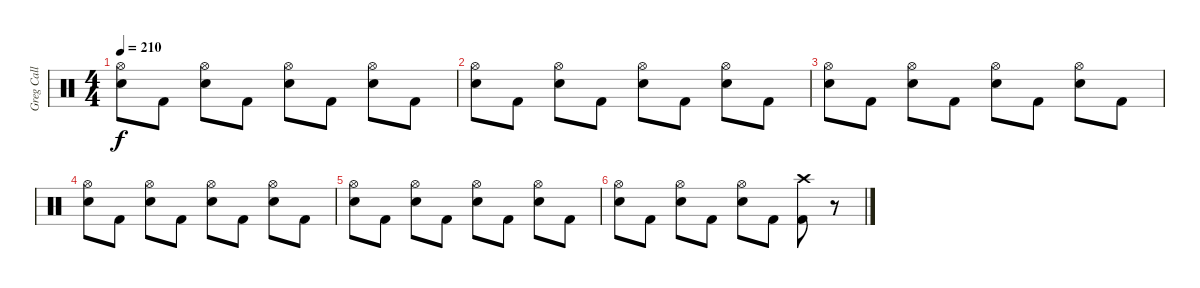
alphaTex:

\track ("Greg Call (Drums)" "Greg Call ") {instrument percussion}
\staff {score}
\articulation defaults
\ts (4 4)
\tempo 210
\clef neutral
\ks c
("Hi-Hat (open)" "Electric Snare (hit)").8{dy f} "Kick (hit) 2".8 ("Hi-Hat (open)" "Electric Snare (hit)").8 "Kick (hit) 2".8 ("Hi-Hat (open)" "Electric Snare (hit)").8 "Kick (hit) 2".8 ("Hi-Hat (open)" "Electric Snare (hit)").8 "Kick (hit) 2".8 |
("Hi-Hat (open)" "Electric Snare (hit)").8 "Kick (hit) 2".8 ("Hi-Hat (open)" "Electric Snare (hit)").8 "Kick (hit) 2".8 ("Hi-Hat (open)" "Electric Snare (hit)").8 "Kick (hit) 2".8 ("Hi-Hat (open)" "Electric Snare (hit)").8 "Kick (hit) 2".8 |
("Hi-Hat (open)" "Electric Snare (hit)").8 "Kick (hit) 2".8 ("Hi-Hat (open)" "Electric Snare (hit)").8 "Kick (hit) 2".8 ("Hi-Hat (open)" "Electric Snare (hit)").8 "Kick (hit) 2".8 ("Hi-Hat (open)" "Electric Snare (hit)").8 "Kick (hit) 2".8 |
("Hi-Hat (open)" "Electric Snare (hit)").8 "Kick (hit) 2".8 ("Hi-Hat (open)" "Electric Snare (hit)").8 "Kick (hit) 2".8 ("Hi-Hat (open)" "Electric Snare (hit)").8 "Kick (hit) 2".8 ("Hi-Hat (open)" "Electric Snare (hit)").8 "Kick (hit) 2".8 |
("Hi-Hat (open)" "Electric Snare (hit)").8 "Kick (hit) 2".8 ("Hi-Hat (open)" "Electric Snare (hit)").8 "Kick (hit) 2".8 ("Hi-Hat (open)" "Electric Snare (hit)").8 "Kick (hit) 2".8 ("Hi-Hat (open)" "Electric Snare (hit)").8 "Kick (hit) 2".8 |
("Hi-Hat (open)" "Electric Snare (hit)").8 "Kick (hit) 2".8 ("Hi-Hat (open)" "Electric Snare (hit)").8 "Kick (hit) 2".8 ("Hi-Hat (open)" "Electric Snare (hit)").8 "Kick (hit) 2".8 ("Crash high (hit)" "Kick (hit) 2").8 r.8{volume 0}
